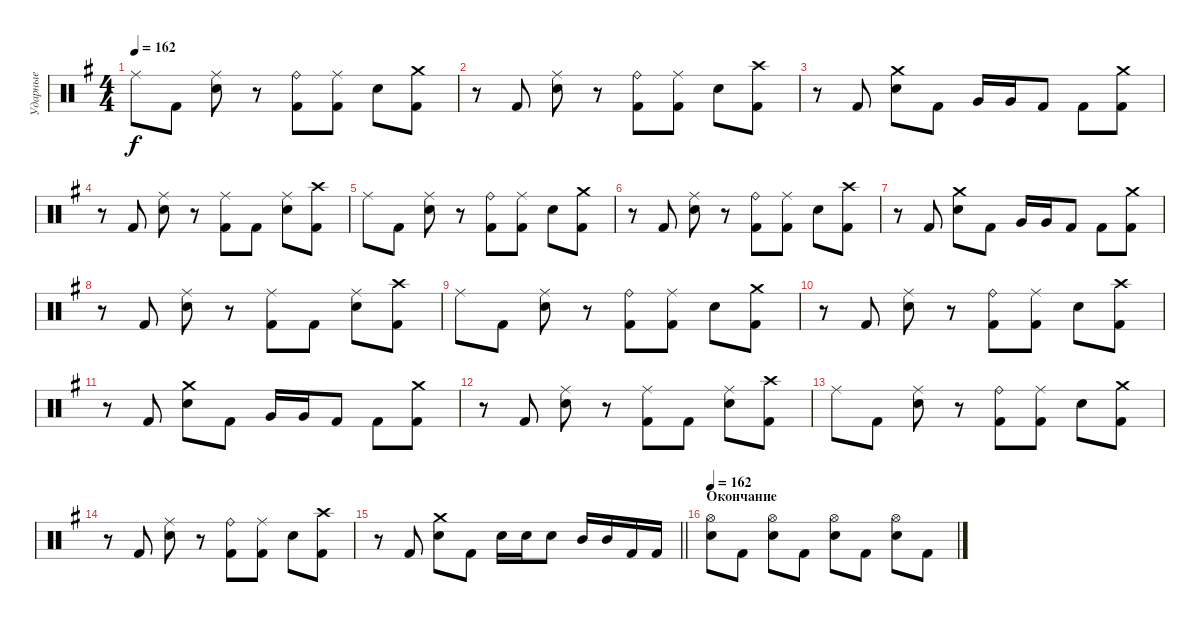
\track ("Ударные" "Ударные") {instrument percussion}
\staff {score}
\articulation defaults
\ts (4 4)
\tempo 162
\clef neutral
\ks eminor "Ride (middle)".8{dy f} "Kick (hit) 2".8
("Ride (middle)" "Electric Snare (hit)").8 r.8 ("Ride (bell)" "Kick (hit) 2").8 ("Ride (middle)" "Kick (hit) 2").8 "Electric Snare (hit)".8 ("Crash medium (hit)" "Kick (hit) 2").8 |
r.8 "Kick (hit) 2".8 ("Ride (middle)" "Electric Snare (hit)").8 r.8 ("Ride (bell)" "Kick (hit) 2").8 ("Ride (middle)" "Kick (hit) 2").8 "Electric Snare (hit)".8 ("Crash high (hit)" "Kick (hit) 2").8 |
r.8 "Kick (hit) 2".8 ("Crash medium (hit)" "Electric Snare (hit)").8 "Kick (hit) 2".8 "Very Low Tom (hit)".16 "Very Low Tom (hit)".16 "Kick (hit) 2".8 "Kick (hit) 2".8 ("Crash medium (hit)" "Kick (hit) 2").8 |
r.8 "Kick (hit) 2".8 ("Ride (middle)" "Electric Snare (hit)").8 r.8 ("Ride (middle)" "Kick (hit) 2").8 "Kick (hit) 2".8 ("Ride (middle)" "Electric Snare (hit)").8 ("Crash high (hit)" "Kick (hit) 2").8 |
"Ride (middle)".8 "Kick (hit) 2".8 ("Ride (middle)" "Electric Snare (hit)").8 r.8 ("Ride (bell)" "Kick (hit) 2").8 ("Ride (middle)" "Kick (hit) 2").8 "Electric Snare (hit)".8 ("Crash medium (hit)" "Kick (hit) 2").8 |
r.8 "Kick (hit) 2".8 ("Ride (middle)" "Electric Snare (hit)").8 r.8 ("Ride (bell)" "Kick (hit) 2").8 ("Ride (middle)" "Kick (hit) 2").8 "Electric Snare (hit)".8 ("Crash high (hit)" "Kick (hit) 2").8 |
r.8 "Kick (hit) 2".8 ("Crash medium (hit)" "Electric Snare (hit)").8 "Kick (hit) 2".8 "Very Low Tom (hit)".16 "Very Low Tom (hit)".16 "Kick (hit) 2".8 "Kick (hit) 2".8 ("Crash medium (hit)" "Kick (hit) 2").8 |
r.8 "Kick (hit) 2".8 ("Ride (middle)" "Electric Snare (hit)").8 r.8 ("Ride (middle)" "Kick (hit) 2").8 "Kick (hit) 2".8 ("Ride (middle)" "Electric Snare (hit)").8 ("Crash high (hit)" "Kick (hit) 2").8 |
"Ride (middle)".8 "Kick (hit) 2".8 ("Ride (middle)" "Electric Snare (hit)").8 r.8 ("Ride (bell)" "Kick (hit) 2").8 ("Ride (middle)" "Kick (hit) 2").8 "Electric Snare (hit)".8 ("Crash medium (hit)" "Kick (hit) 2").8 |
r.8 "Kick (hit) 2".8 ("Ride (middle)" "Electric Snare (hit)").8 r.8 ("Ride (bell)" "Kick (hit) 2").8 ("Ride (middle)" "Kick (hit) 2").8 "Electric Snare (hit)".8 ("Crash high (hit)" "Kick (hit) 2").8 |
r.8 "Kick (hit) 2".8 ("Crash medium (hit)" "Electric Snare (hit)").8 "Kick (hit) 2".8 "Very Low Tom (hit)".16 "Very Low Tom (hit)".16 "Kick (hit) 2".8 "Kick (hit) 2".8 ("Crash medium (hit)" "Kick (hit) 2").8 |
r.8 "Kick (hit) 2".8 ("Ride (middle)" "Electric Snare (hit)").8 r.8 ("Ride (middle)" "Kick (hit) 2").8 "Kick (hit) 2".8 ("Ride (middle)" "Electric Snare (hit)").8 ("Crash high (hit)" "Kick (hit) 2").8 |
"Ride (middle)".8 "Kick (hit) 2".8 ("Ride (middle)" "Electric Snare (hit)").8 r.8 ("Ride (bell)" "Kick (hit) 2").8 ("Ride (middle)" "Kick (hit) 2").8 "Electric Snare (hit)".8 ("Crash medium (hit)" "Kick (hit) 2").8 |
r.8 "Kick (hit) 2".8 ("Ride (middle)" "Electric Snare (hit)").8 r.8 ("Ride (bell)" "Kick (hit) 2").8 ("Ride (middle)" "Kick (hit) 2").8 "Electric Snare (hit)".8 ("Crash high (hit)" "Kick (hit) 2").8 |
\barLineRight lightlight
r.8 "Kick (hit) 2".8 ("Crash medium (hit)" "Electric Snare (hit)").8 "Kick (hit) 2".8 "Electric Snare (hit)".16 "Electric Snare (hit)".16 "Electric Snare (hit)".8 "Mid Tom (hit)".16 "Mid Tom (hit)".16 "Kick (hit) 2".16 "Kick (hit) 2".16 |
\section ("" "Окончание")
\tempo 162
("Hi-Hat (open)" "Electric Snare (hit)").8 "Kick (hit) 2".8 ("Hi-Hat (open)" "Electric Snare (hit)").8 "Kick (hit) 2".8 ("Hi-Hat (open)" "Electric Snare (hit)").8 "Kick (hit) 2".8 ("Hi-Hat (open)" "Electric Snare (hit)").8 "Kick (hit) 2".8
